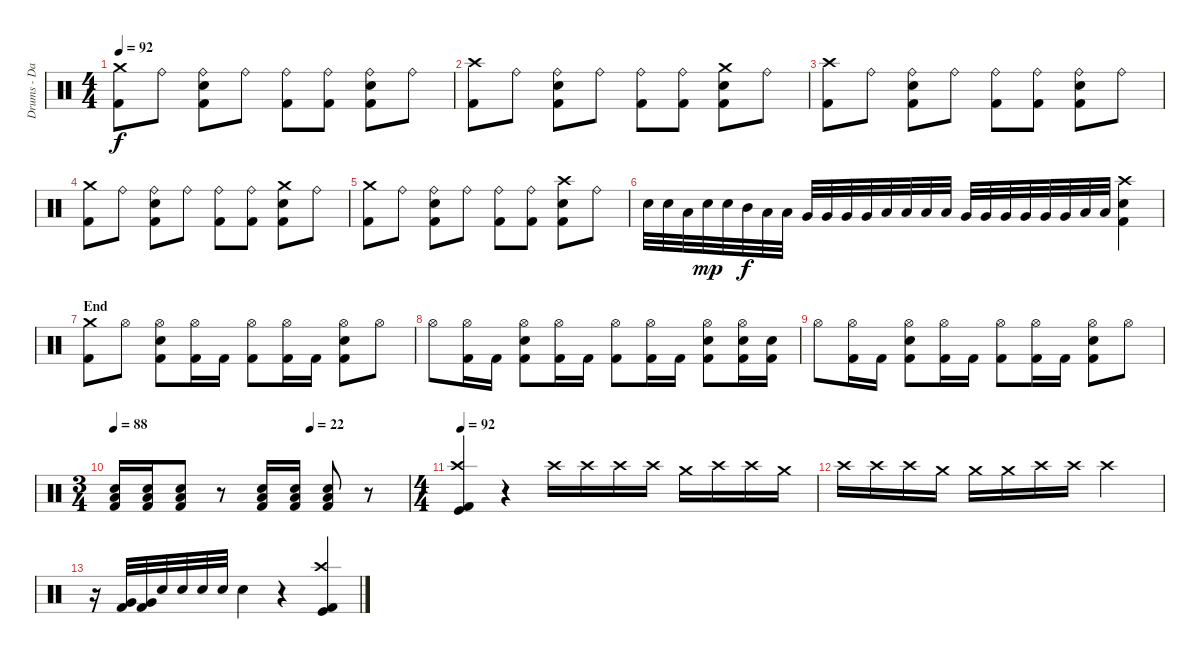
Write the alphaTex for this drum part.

\track ("Drums - Daniel Zimmermann" "Drums - Da") {instrument percussion}
\staff {score}
\articulation defaults
\ts (4 4)
\tempo 92
\clef neutral
\ks c
("Kick (hit) 2" "Crash medium (hit)").8{dy f} "Ride (bell)".8 ("Kick (hit) 2" "Electric Snare (hit)" "Ride (bell)").8 "Ride (bell)".8 ("Kick (hit) 2" "Ride (bell)").8 ("Kick (hit) 2" "Ride (bell)").8 ("Kick (hit) 2" "Electric Snare (hit)" "Ride (bell)").8 "Ride (bell)".8 |
("Kick (hit) 2" "Crash high (hit)").8 "Ride (bell)".8 ("Kick (hit) 2" "Electric Snare (hit)" "Ride (bell)").8 "Ride (bell)".8 ("Kick (hit) 2" "Ride (bell)").8 ("Kick (hit) 2" "Ride (bell)").8 ("Kick (hit) 2" "Electric Snare (hit)" "Crash medium (hit)").8 "Ride (bell)".8 |
("Kick (hit) 2" "Crash high (hit)").8 "Ride (bell)".8 ("Kick (hit) 2" "Electric Snare (hit)" "Ride (bell)").8 "Ride (bell)".8 ("Kick (hit) 2" "Ride (bell)").8 ("Kick (hit) 2" "Ride (bell)").8 ("Kick (hit) 2" "Electric Snare (hit)" "Ride (bell)").8 "Ride (bell)".8 |
("Kick (hit) 2" "Crash medium (hit)").8 "Ride (bell)".8 ("Kick (hit) 2" "Electric Snare (hit)" "Ride (bell)").8 "Ride (bell)".8 ("Kick (hit) 2" "Ride (bell)").8 ("Kick (hit) 2" "Ride (bell)").8 ("Kick (hit) 2" "Electric Snare (hit)" "Crash medium (hit)").8 "Ride (bell)".8 |
("Kick (hit) 2" "Crash medium (hit)").8 "Ride (bell)".8 ("Kick (hit) 2" "Electric Snare (hit)" "Ride (bell)").8 "Ride (bell)".8 ("Kick (hit) 2" "Ride (bell)").8 ("Kick (hit) 2" "Ride (bell)").8 ("Kick (hit) 2" "Electric Snare (hit)" "Crash high (hit)").8 "Ride (bell)".8 |
"Electric Snare (hit)".32 "Electric Snare (hit)".32 "Low Tom (hit)".32 "Electric Snare (hit)".32{dy mp} "Electric Snare (hit)".32 "Mid Tom (hit)".32{dy f} "Low Tom (hit)".32 "Low Tom (hit)".32 "Very Low Tom (hit)".32 "Very Low Tom (hit)".32 "Very Low Tom (hit)".32 "Very Low Tom (hit)".32 "Low Tom (hit)".32 "Low Tom (hit)".32 "Low Tom (hit)".32 "Low Tom (hit)".32 "Very Low Tom (hit)".32 "Very Low Tom (hit)".32 "Very Low Tom (hit)".32 "Very Low Tom (hit)".32 "Very Low Tom (hit)".32 "Very Low Tom (hit)".32 "Low Floor Tom (hit)".32 "Low Floor Tom (hit)".32 ("Kick (hit) 2" "Electric Snare (hit)" "Crash high (hit)").4 |
\section ("" "End")
("Kick (hit) 2" "Crash medium (hit)").8 "Hi-Hat (open)".8 ("Kick (hit) 2" "Electric Snare (hit)" "Hi-Hat (open)").8 ("Kick (hit) 2" "Hi-Hat (open)").16 "Kick (hit) 2".16 ("Kick (hit) 2" "Hi-Hat (open)").8 ("Kick (hit) 2" "Hi-Hat (open)").16 "Kick (hit) 2".16 ("Kick (hit) 2" "Electric Snare (hit)" "Hi-Hat (open)").8 "Hi-Hat (open)".8 |
"Hi-Hat (open)".8 ("Kick (hit) 2" "Hi-Hat (open)").16 "Kick (hit) 2".16 ("Kick (hit) 2" "Electric Snare (hit)" "Hi-Hat (open)").8 ("Kick (hit) 2" "Hi-Hat (open)").16 "Kick (hit) 2".16 ("Kick (hit) 2" "Hi-Hat (open)").8 ("Kick (hit) 2" "Hi-Hat (open)").16 "Kick (hit) 2".16 ("Kick (hit) 2" "Electric Snare (hit)" "Hi-Hat (open)").8 ("Kick (hit) 2" "Electric Snare (hit)" "Hi-Hat (open)").16 ("Kick (hit) 2" "Electric Snare (hit)").16 |
"Hi-Hat (open)".8 ("Kick (hit) 2" "Hi-Hat (open)").16 "Kick (hit) 2".16 ("Kick (hit) 2" "Electric Snare (hit)" "Hi-Hat (open)").8 ("Kick (hit) 2" "Hi-Hat (open)").16 "Kick (hit) 2".16 ("Kick (hit) 2" "Hi-Hat (open)").8 ("Kick (hit) 2" "Hi-Hat (open)").16 "Kick (hit) 2".16 ("Kick (hit) 2" "Electric Snare (hit)" "Hi-Hat (open)").8 "Hi-Hat (open)".8 |
\ts (3 4)
\tempo 88
\tempo (22 0.6666666666666666)
("Kick (hit) 2" "Electric Snare (hit)" "Low Tom (hit)").16 ("Kick (hit) 2" "Electric Snare (hit)" "Low Tom (hit)").16 ("Kick (hit) 2" "Electric Snare (hit)" "Low Tom (hit)").8 r.8 ("Kick (hit) 2" "Electric Snare (hit)" "Low Tom (hit)").16 ("Kick (hit) 2" "Electric Snare (hit)" "Low Tom (hit)").16 ("Kick (hit) 2" "Electric Snare (hit)" "Low Tom (hit)").8 r.8 |
\ts (4 4)
\tempo 92
("Kick (hit) 2" "Kick (hit)" "Crash high (hit)").4 r.4 "Crash high (hit)".16 "Crash high (hit)".16 "Crash high (hit)".16 "Crash high (hit)".16 "Crash medium (hit)".16 "Crash high (hit)".16 "Crash high (hit)".16 "Crash medium (hit)".16 |
"Crash high (hit)".16 "Crash high (hit)".16 "Crash high (hit)".16 "Crash medium (hit)".16 "Crash medium (hit)".16 "Crash medium (hit)".16 "Crash high (hit)".16 "Crash high (hit)".16 "Crash high (hit)".2 |
r.16 ("Kick (hit) 2" "Very Low Tom (hit)").32 ("Kick (hit) 2" "Very Low Tom (hit)").32 "Electric Snare (hit)".32 "Electric Snare (hit)".32 "Electric Snare (hit)".32 "Electric Snare (hit)".32 "Electric Snare (hit)".4 r.4 ("Kick (hit) 2" "Kick (hit)" "Crash high (hit)").4
